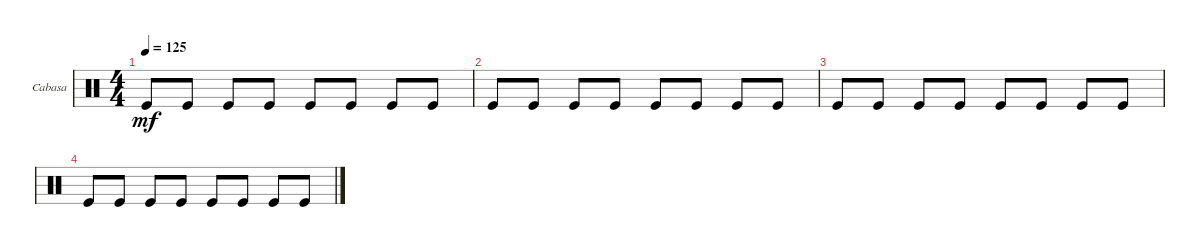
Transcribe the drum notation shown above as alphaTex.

\defaultSystemsLayout 4
\bracketExtendMode groupsimilarinstruments
\firstSystemTrackNameOrientation horizontal
\otherSystemsTrackNameOrientation horizontal
\track ("Cabasa" "Cabasa") {instrument percussion}
\staff {score}
\articulation defaults
\ts (4 4)
\tempo 125
\clef neutral
\scale
0.333333
\ks c "Kick (hit)".8{dy mf} "Kick (hit)".8 "Kick (hit)".8 "Kick (hit)".8 "Kick (hit)".8 "Kick (hit)".8 "Kick (hit)".8 "Kick (hit)".8
|
\scale
0.333333 "Kick (hit)".8 "Kick (hit)".8 "Kick (hit)".8 "Kick (hit)".8 "Kick (hit)".8 "Kick (hit)".8 "Kick (hit)".8 "Kick (hit)".8 |
\scale
0.333333 "Kick (hit)".8 "Kick (hit)".8 "Kick (hit)".8 "Kick (hit)".8 "Kick (hit)".8 "Kick (hit)".8 "Kick (hit)".8 "Kick (hit)".8 |
\scale
0.333333 "Kick (hit)".8 "Kick (hit)".8 "Kick (hit)".8 "Kick (hit)".8 "Kick (hit)".8 "Kick (hit)".8 "Kick (hit)".8 "Kick (hit)".8 |
\scale
0.333333 |
\scale
0.333333 |
\scale
0.333333 |
\scale
0.333333 |
\scale
0.333333 |
\scale
0.333333
